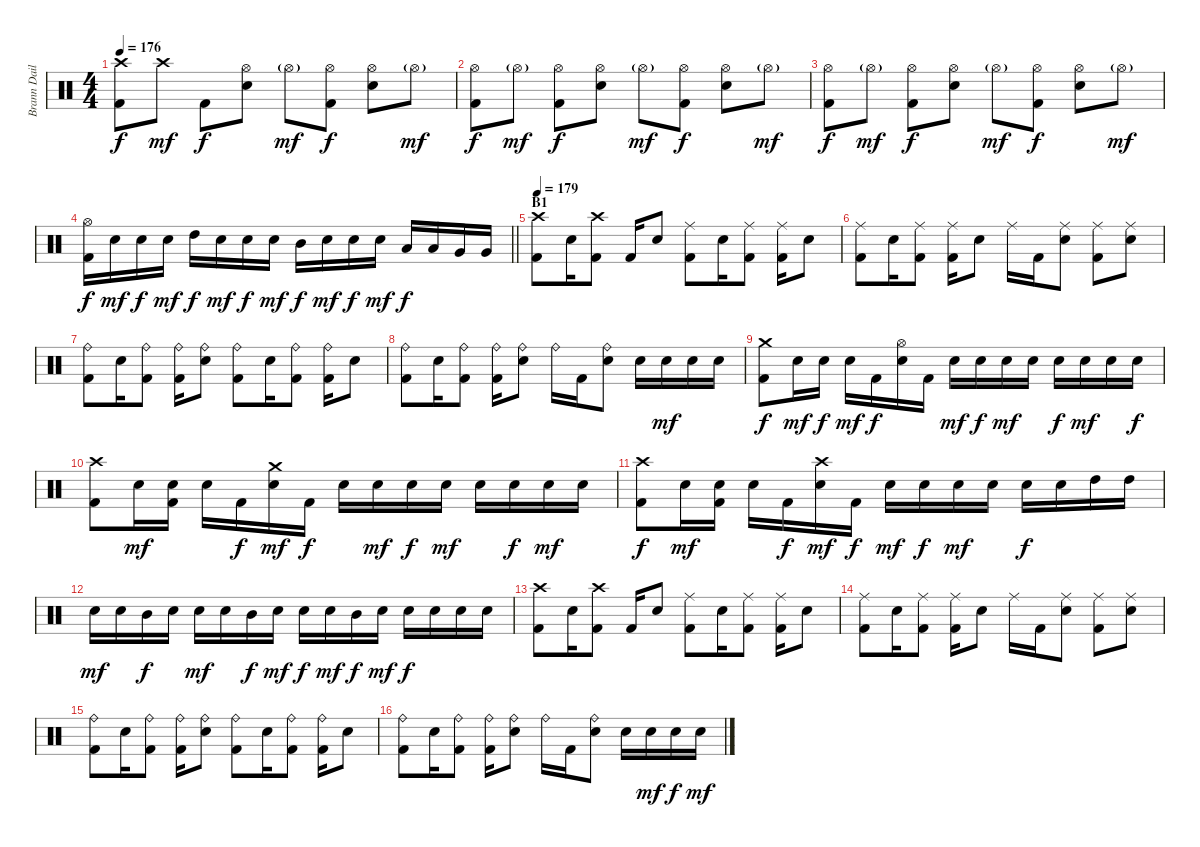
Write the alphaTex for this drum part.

\track ("Brann Dailor" "Brann Dail") {instrument percussion}
\staff {score}
\articulation defaults
\ts (4 4)
\tempo 176
\clef neutral
\ks c
("Crash high (hit)" "Kick (hit) 2").8{dy f} "Crash high (hit)".8{dy mf} "Kick (hit) 2".8{dy f} ("Hi-Hat (open)" "Snare (hit) 2").8 "Hi-Hat (open)"{g}.8{dy mf} ("Hi-Hat (open)" "Kick (hit) 2").8{dy f} ("Hi-Hat (open)" "Snare (hit) 2").8 "Hi-Hat (open)"{g}.8{dy mf} |
("Hi-Hat (open)" "Kick (hit) 2").8{dy f} "Hi-Hat (open)"{g}.8{dy mf} ("Hi-Hat (open)" "Kick (hit) 2").8{dy f} ("Hi-Hat (open)" "Snare (hit) 2").8 "Hi-Hat (open)"{g}.8{dy mf} ("Hi-Hat (open)" "Kick (hit) 2").8{dy f} ("Hi-Hat (open)" "Snare (hit) 2").8 "Hi-Hat (open)"{g}.8{dy mf} |
("Hi-Hat (open)" "Kick (hit) 2").8{dy f} "Hi-Hat (open)"{g}.8{dy mf} ("Hi-Hat (open)" "Kick (hit) 2").8{dy f} ("Hi-Hat (open)" "Snare (hit) 2").8 "Hi-Hat (open)"{g}.8{dy mf} ("Hi-Hat (open)" "Kick (hit) 2").8{dy f} ("Hi-Hat (open)" "Snare (hit) 2").8 "Hi-Hat (open)"{g}.8{dy mf} |
\barLineRight lightlight
("Hi-Hat (open)" "Kick (hit) 2").16{dy f} "Snare (hit) 2".16{dy mf} "Snare (hit) 2".16{dy f} "Snare (hit) 2".16{dy mf} "High Tom (hit)".16{dy f} "Snare (hit) 2".16{dy mf} "Snare (hit) 2".16{dy f} "Snare (hit) 2".16{dy mf} "Mid Tom (hit)".16{dy f} "Snare (hit) 2".16{dy mf} "Snare (hit) 2".16{dy f} "Snare (hit) 2".16{dy mf} "Low Tom (hit)".16{dy f} "Low Tom (hit)".16 "Very Low Tom (hit)".16 "Very Low Tom (hit)".16 |
\section ("" "B1")
\tempo 179
("Crash high (hit)" "Kick (hit) 2").8 "Snare (hit) 2".16 ("Crash high (hit)" "Kick (hit) 2").8 "Kick (hit) 2".16 "Snare (hit) 2".8 ("Ride (middle)" "Kick (hit) 2").8 "Snare (hit) 2".16 ("Ride (middle)" "Kick (hit) 2").8 ("Ride (middle)" "Kick (hit) 2").16 "Snare (hit) 2".8 |
("Ride (middle)" "Kick (hit) 2").8 "Snare (hit) 2".16 ("Ride (middle)" "Kick (hit) 2").8 ("Ride (middle)" "Kick (hit) 2").16 "Snare (hit) 2".8 "Ride (middle)".16 "Kick (hit) 2".16 ("Ride (middle)" "Snare (hit) 2").8 ("Ride (middle)" "Kick (hit) 2").8 ("Ride (middle)" "Snare (hit) 2").8 |
("Ride (bell)" "Kick (hit) 2").8 "Snare (hit) 2".16 ("Ride (bell)" "Kick (hit) 2").8 ("Ride (bell)" "Kick (hit) 2").16 ("Ride (bell)" "Snare (hit) 2").8 ("Ride (bell)" "Kick (hit) 2").8 "Snare (hit) 2".16 ("Ride (bell)" "Kick (hit) 2").8 ("Ride (bell)" "Kick (hit) 2").16 "Snare (hit) 2".8 |
("Ride (bell)" "Kick (hit) 2").8 "Snare (hit) 2".16 ("Ride (bell)" "Kick (hit) 2").8 ("Ride (bell)" "Kick (hit) 2").16 ("Ride (bell)" "Snare (hit) 2").8 "Ride (bell)".16 "Kick (hit) 2".16 ("Ride (bell)" "Snare (hit) 2").8 "Snare (hit) 2".16 "Snare (hit) 2".16{dy mf} "Snare (hit) 2".16 "Snare (hit) 2".16 |
("Crash medium (hit)" "Kick (hit) 2").8{dy f} "Snare (hit) 2".16{dy mf} "Snare (hit) 2".16{dy f} "Snare (hit) 2".16{dy mf} "Kick (hit) 2".16{dy f} ("Hi-Hat (open)" "Snare (hit) 2").16 "Kick (hit) 2".16 "Snare (hit) 2".16{dy mf} "Snare (hit) 2".16{dy f} "Snare (hit) 2".16{dy mf} "Snare (hit) 2".16 "Snare (hit) 2".16{dy f} "Snare (hit) 2".16{dy mf} "Snare (hit) 2".16 "Snare (hit) 2".16{dy f} |
("Crash high (hit)" "Kick (hit) 2").8 "Snare (hit) 2".16{dy mf} ("Snare (hit) 2" "Kick (hit) 2").16 "Snare (hit) 2".16 "Kick (hit) 2".16{dy f} ("Crash medium (hit)" "Snare (hit) 2").16{dy mf} "Kick (hit) 2".16{dy f} "Snare (hit) 2".16 "Snare (hit) 2".16{dy mf} "Snare (hit) 2".16{dy f} "Snare (hit) 2".16{dy mf} "Snare (hit) 2".16 "Snare (hit) 2".16{dy f} "Snare (hit) 2".16{dy mf} "Snare (hit) 2".16 |
("Crash high (hit)" "Kick (hit) 2").8{dy f} "Snare (hit) 2".16{dy mf} ("Snare (hit) 2" "Kick (hit) 2").16 "Snare (hit) 2".16 "Kick (hit) 2".16{dy f} ("Crash high (hit)" "Snare (hit) 2").16{dy mf} "Kick (hit) 2".16{dy f} "Snare (hit) 2".16{dy mf} "Snare (hit) 2".16{dy f} "Snare (hit) 2".16{dy mf} "Snare (hit) 2".16 "Snare (hit) 2".16{dy f} "Snare (hit) 2".16 "High Tom (hit)".16 "High Tom (hit)".16 |
"Snare (hit) 2".16{dy mf} "Snare (hit) 2".16 "Mid Tom (hit)".16{dy f} "Snare (hit) 2".16 "Snare (hit) 2".16{dy mf} "Snare (hit) 2".16 "Mid Tom (hit)".16{dy f} "Snare (hit) 2".16{dy mf} "Snare (hit) 2".16{dy f} "Snare (hit) 2".16{dy mf} "Mid Tom (hit)".16{dy f} "Snare (hit) 2".16{dy mf} "Snare (hit) 2".16{dy f} "Snare (hit) 2".16 "Snare (hit) 2".16 "Snare (hit) 2".16 |
("Crash high (hit)" "Kick (hit) 2").8 "Snare (hit) 2".16 ("Crash high (hit)" "Kick (hit) 2").8 "Kick (hit) 2".16 "Snare (hit) 2".8 ("Ride (middle)" "Kick (hit) 2").8 "Snare (hit) 2".16 ("Ride (middle)" "Kick (hit) 2").8 ("Ride (middle)" "Kick (hit) 2").16 "Snare (hit) 2".8 |
("Ride (middle)" "Kick (hit) 2").8 "Snare (hit) 2".16 ("Ride (middle)" "Kick (hit) 2").8 ("Ride (middle)" "Kick (hit) 2").16 "Snare (hit) 2".8 "Ride (middle)".16 "Kick (hit) 2".16 ("Ride (middle)" "Snare (hit) 2").8 ("Ride (middle)" "Kick (hit) 2").8 ("Ride (middle)" "Snare (hit) 2").8 |
("Ride (bell)" "Kick (hit) 2").8 "Snare (hit) 2".16 ("Ride (bell)" "Kick (hit) 2").8 ("Ride (bell)" "Kick (hit) 2").16 ("Ride (bell)" "Snare (hit) 2").8 ("Ride (bell)" "Kick (hit) 2").8 "Snare (hit) 2".16 ("Ride (bell)" "Kick (hit) 2").8 ("Ride (bell)" "Kick (hit) 2").16 "Snare (hit) 2".8 |
("Ride (bell)" "Kick (hit) 2").8 "Snare (hit) 2".16 ("Ride (bell)" "Kick (hit) 2").8 ("Ride (bell)" "Kick (hit) 2").16 ("Ride (bell)" "Snare (hit) 2").8 "Ride (bell)".16 "Kick (hit) 2".16 ("Ride (bell)" "Snare (hit) 2").8 "Snare (hit) 2".16 "Snare (hit) 2".16{dy mf} "Snare (hit) 2".16{dy f} "Snare (hit) 2".16{dy mf}
